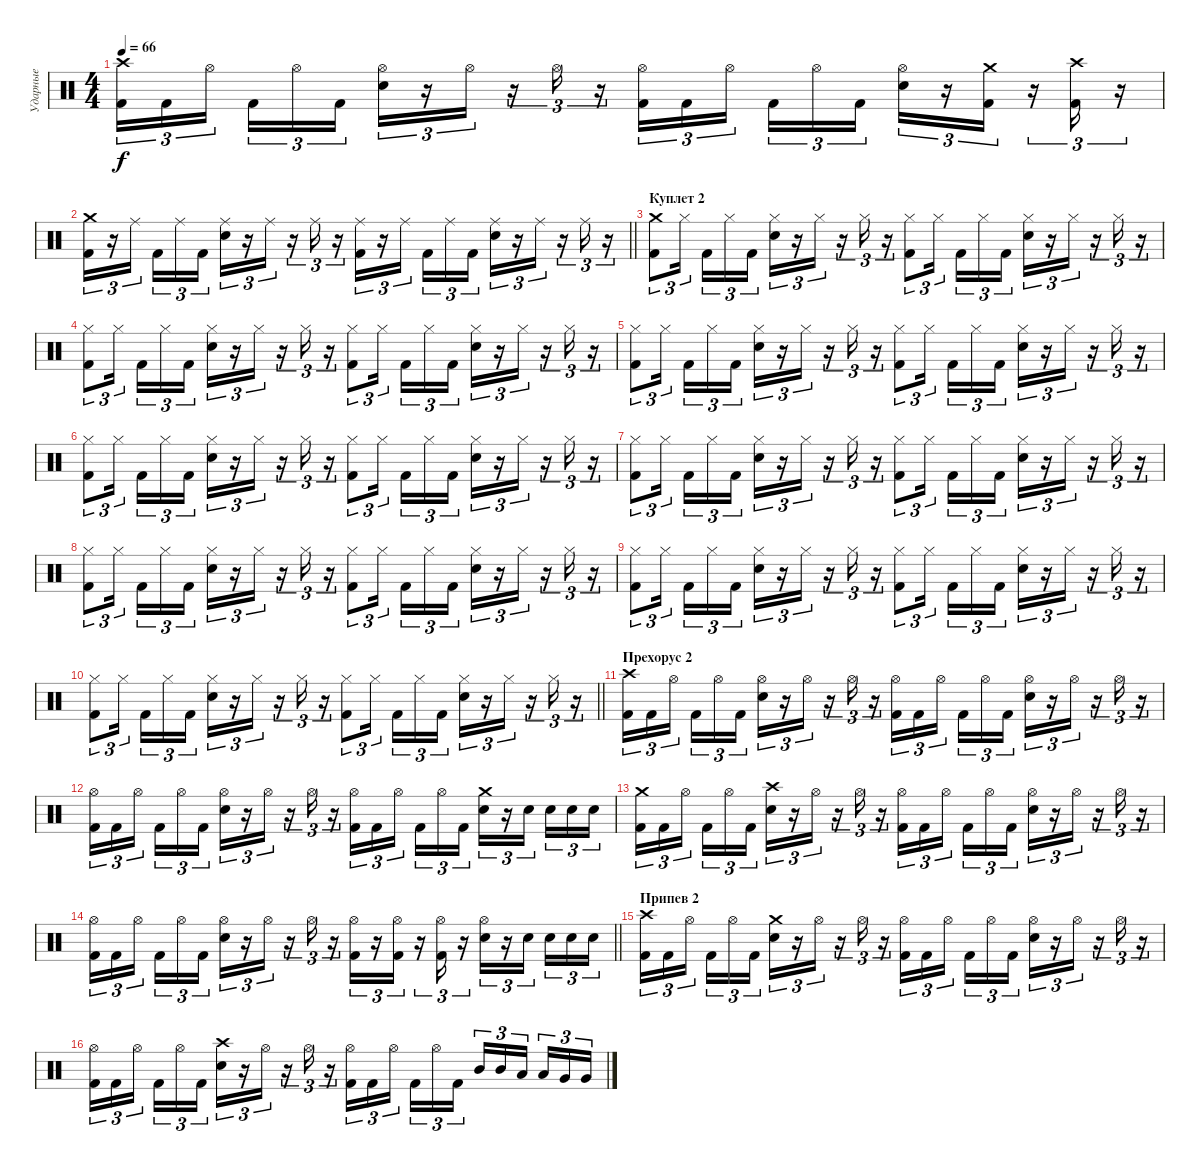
\track ("Ударные" "Ударные") {instrument percussion}
\staff {score}
\articulation defaults
\ts (4 4)
\tempo 66
\clef neutral
\ks c
("Crash high (hit)" "Kick (hit) 2").16{tu (3 2) dy f} "Kick (hit) 2".16{tu (3 2)} "Hi-Hat (open)".16{tu (3 2)} "Kick (hit) 2".16{tu (3 2)} "Hi-Hat (open)".16{tu (3 2)} "Kick (hit) 2".16{tu (3 2)} ("Hi-Hat (open)" "Snare (hit) 2").16{tu (3 2)} r.16{tu (3 2)} "Hi-Hat (open)".16{tu (3 2)} r.16{tu (3 2)} "Hi-Hat (open)".16{tu (3 2)} r.16{tu (3 2)} ("Hi-Hat (open)" "Kick (hit) 2").16{tu (3 2)} "Kick (hit) 2".16{tu (3 2)} "Hi-Hat (open)".16{tu (3 2)} "Kick (hit) 2".16{tu (3 2)} "Hi-Hat (open)".16{tu (3 2)} "Kick (hit) 2".16{tu (3 2)} ("Hi-Hat (open)" "Snare (hit) 2").16{tu (3 2)} r.16{tu (3 2)} ("Crash medium (hit)" "Kick (hit) 2").16{tu (3 2)} r.16{tu (3 2)} ("Crash high (hit)" "Kick (hit) 2").16{tu (3 2)} r.16{tu (3 2)} |
\barLineRight lightlight
("Crash medium (hit)" "Kick (hit) 2").16{tu (3 2)} r.16{tu (3 2)} "Ride (middle)".16{tu (3 2)} "Kick (hit) 2".16{tu (3 2)} "Ride (middle)".16{tu (3 2)} "Kick (hit) 2".16{tu (3 2)} ("Ride (middle)" "Snare (hit) 2").16{tu (3 2)} r.16{tu (3 2)} "Ride (middle)".16{tu (3 2)} r.16{tu (3 2)} "Ride (middle)".16{tu (3 2)} r.16{tu (3 2)} ("Ride (middle)" "Kick (hit) 2").16{tu (3 2)} r.16{tu (3 2)} "Ride (middle)".16{tu (3 2)} "Kick (hit) 2".16{tu (3 2)} "Ride (middle)".16{tu (3 2)} "Kick (hit) 2".16{tu (3 2)} ("Ride (middle)" "Snare (hit) 2").16{tu (3 2)} r.16{tu (3 2)} "Ride (middle)".16{tu (3 2)} r.16{tu (3 2)} "Ride (middle)".16{tu (3 2)} r.16{tu (3 2)} |
\section ("" "Куплет 2")
("Crash medium (hit)" "Kick (hit) 2").8{tu (3 2)} "Hi-Hat (closed)".16{tu (3 2)} "Kick (hit) 2".16{tu (3 2)} "Hi-Hat (closed)".16{tu (3 2)} "Kick (hit) 2".16{tu (3 2)} ("Hi-Hat (closed)" "Snare (hit) 2").16{tu (3 2)} r.16{tu (3 2)} "Hi-Hat (closed)".16{tu (3 2)} r.16{tu (3 2)} "Hi-Hat (closed)".16{tu (3 2)} r.16{tu (3 2)} ("Hi-Hat (closed)" "Kick (hit) 2").8{tu (3 2)} "Hi-Hat (closed)".16{tu (3 2)} "Kick (hit) 2".16{tu (3 2)} "Hi-Hat (closed)".16{tu (3 2)} "Kick (hit) 2".16{tu (3 2)} ("Hi-Hat (closed)" "Snare (hit) 2").16{tu (3 2)} r.16{tu (3 2)} "Hi-Hat (closed)".16{tu (3 2)} r.16{tu (3 2)} "Hi-Hat (closed)".16{tu (3 2)} r.16{tu (3 2)} |
("Hi-Hat (closed)" "Kick (hit) 2").8{tu (3 2)} "Hi-Hat (closed)".16{tu (3 2)} "Kick (hit) 2".16{tu (3 2)} "Hi-Hat (closed)".16{tu (3 2)} "Kick (hit) 2".16{tu (3 2)} ("Hi-Hat (closed)" "Snare (hit) 2").16{tu (3 2)} r.16{tu (3 2)} "Hi-Hat (closed)".16{tu (3 2)} r.16{tu (3 2)} "Hi-Hat (closed)".16{tu (3 2)} r.16{tu (3 2)} ("Hi-Hat (closed)" "Kick (hit) 2").8{tu (3 2)} "Hi-Hat (closed)".16{tu (3 2)} "Kick (hit) 2".16{tu (3 2)} "Hi-Hat (closed)".16{tu (3 2)} "Kick (hit) 2".16{tu (3 2)} ("Hi-Hat (closed)" "Snare (hit) 2").16{tu (3 2)} r.16{tu (3 2)} "Hi-Hat (closed)".16{tu (3 2)} r.16{tu (3 2)} "Hi-Hat (closed)".16{tu (3 2)} r.16{tu (3 2)} |
("Hi-Hat (closed)" "Kick (hit) 2").8{tu (3 2)} "Hi-Hat (closed)".16{tu (3 2)} "Kick (hit) 2".16{tu (3 2)} "Hi-Hat (closed)".16{tu (3 2)} "Kick (hit) 2".16{tu (3 2)} ("Hi-Hat (closed)" "Snare (hit) 2").16{tu (3 2)} r.16{tu (3 2)} "Hi-Hat (closed)".16{tu (3 2)} r.16{tu (3 2)} "Hi-Hat (closed)".16{tu (3 2)} r.16{tu (3 2)} ("Hi-Hat (closed)" "Kick (hit) 2").8{tu (3 2)} "Hi-Hat (closed)".16{tu (3 2)} "Kick (hit) 2".16{tu (3 2)} "Hi-Hat (closed)".16{tu (3 2)} "Kick (hit) 2".16{tu (3 2)} ("Hi-Hat (closed)" "Snare (hit) 2").16{tu (3 2)} r.16{tu (3 2)} "Hi-Hat (closed)".16{tu (3 2)} r.16{tu (3 2)} "Hi-Hat (closed)".16{tu (3 2)} r.16{tu (3 2)} |
("Hi-Hat (closed)" "Kick (hit) 2").8{tu (3 2)} "Hi-Hat (closed)".16{tu (3 2)} "Kick (hit) 2".16{tu (3 2)} "Hi-Hat (closed)".16{tu (3 2)} "Kick (hit) 2".16{tu (3 2)} ("Hi-Hat (closed)" "Snare (hit) 2").16{tu (3 2)} r.16{tu (3 2)} "Hi-Hat (closed)".16{tu (3 2)} r.16{tu (3 2)} "Hi-Hat (closed)".16{tu (3 2)} r.16{tu (3 2)} ("Hi-Hat (closed)" "Kick (hit) 2").8{tu (3 2)} "Hi-Hat (closed)".16{tu (3 2)} "Kick (hit) 2".16{tu (3 2)} "Hi-Hat (closed)".16{tu (3 2)} "Kick (hit) 2".16{tu (3 2)} ("Hi-Hat (closed)" "Snare (hit) 2").16{tu (3 2)} r.16{tu (3 2)} "Hi-Hat (closed)".16{tu (3 2)} r.16{tu (3 2)} "Hi-Hat (closed)".16{tu (3 2)} r.16{tu (3 2)} |
("Hi-Hat (closed)" "Kick (hit) 2").8{tu (3 2)} "Hi-Hat (closed)".16{tu (3 2)} "Kick (hit) 2".16{tu (3 2)} "Hi-Hat (closed)".16{tu (3 2)} "Kick (hit) 2".16{tu (3 2)} ("Hi-Hat (closed)" "Snare (hit) 2").16{tu (3 2)} r.16{tu (3 2)} "Hi-Hat (closed)".16{tu (3 2)} r.16{tu (3 2)} "Hi-Hat (closed)".16{tu (3 2)} r.16{tu (3 2)} ("Hi-Hat (closed)" "Kick (hit) 2").8{tu (3 2)} "Hi-Hat (closed)".16{tu (3 2)} "Kick (hit) 2".16{tu (3 2)} "Hi-Hat (closed)".16{tu (3 2)} "Kick (hit) 2".16{tu (3 2)} ("Hi-Hat (closed)" "Snare (hit) 2").16{tu (3 2)} r.16{tu (3 2)} "Hi-Hat (closed)".16{tu (3 2)} r.16{tu (3 2)} "Hi-Hat (closed)".16{tu (3 2)} r.16{tu (3 2)} |
("Hi-Hat (closed)" "Kick (hit) 2").8{tu (3 2)} "Hi-Hat (closed)".16{tu (3 2)} "Kick (hit) 2".16{tu (3 2)} "Hi-Hat (closed)".16{tu (3 2)} "Kick (hit) 2".16{tu (3 2)} ("Hi-Hat (closed)" "Snare (hit) 2").16{tu (3 2)} r.16{tu (3 2)} "Hi-Hat (closed)".16{tu (3 2)} r.16{tu (3 2)} "Hi-Hat (closed)".16{tu (3 2)} r.16{tu (3 2)} ("Hi-Hat (closed)" "Kick (hit) 2").8{tu (3 2)} "Hi-Hat (closed)".16{tu (3 2)} "Kick (hit) 2".16{tu (3 2)} "Hi-Hat (closed)".16{tu (3 2)} "Kick (hit) 2".16{tu (3 2)} ("Hi-Hat (closed)" "Snare (hit) 2").16{tu (3 2)} r.16{tu (3 2)} "Hi-Hat (closed)".16{tu (3 2)} r.16{tu (3 2)} "Hi-Hat (closed)".16{tu (3 2)} r.16{tu (3 2)} |
("Hi-Hat (closed)" "Kick (hit) 2").8{tu (3 2)} "Hi-Hat (closed)".16{tu (3 2)} "Kick (hit) 2".16{tu (3 2)} "Hi-Hat (closed)".16{tu (3 2)} "Kick (hit) 2".16{tu (3 2)} ("Hi-Hat (closed)" "Snare (hit) 2").16{tu (3 2)} r.16{tu (3 2)} "Hi-Hat (closed)".16{tu (3 2)} r.16{tu (3 2)} "Hi-Hat (closed)".16{tu (3 2)} r.16{tu (3 2)} ("Hi-Hat (closed)" "Kick (hit) 2").8{tu (3 2)} "Hi-Hat (closed)".16{tu (3 2)} "Kick (hit) 2".16{tu (3 2)} "Hi-Hat (closed)".16{tu (3 2)} "Kick (hit) 2".16{tu (3 2)} ("Hi-Hat (closed)" "Snare (hit) 2").16{tu (3 2)} r.16{tu (3 2)} "Hi-Hat (closed)".16{tu (3 2)} r.16{tu (3 2)} "Hi-Hat (closed)".16{tu (3 2)} r.16{tu (3 2)} |
\barLineRight lightlight
("Hi-Hat (closed)" "Kick (hit) 2").8{tu (3 2)} "Hi-Hat (closed)".16{tu (3 2)} "Kick (hit) 2".16{tu (3 2)} "Hi-Hat (closed)".16{tu (3 2)} "Kick (hit) 2".16{tu (3 2)} ("Hi-Hat (closed)" "Snare (hit) 2").16{tu (3 2)} r.16{tu (3 2)} "Hi-Hat (closed)".16{tu (3 2)} r.16{tu (3 2)} "Hi-Hat (closed)".16{tu (3 2)} r.16{tu (3 2)} ("Hi-Hat (closed)" "Kick (hit) 2").8{tu (3 2)} "Hi-Hat (closed)".16{tu (3 2)} "Kick (hit) 2".16{tu (3 2)} "Hi-Hat (closed)".16{tu (3 2)} "Kick (hit) 2".16{tu (3 2)} ("Hi-Hat (closed)" "Snare (hit) 2").16{tu (3 2)} r.16{tu (3 2)} "Hi-Hat (closed)".16{tu (3 2)} r.16{tu (3 2)} "Hi-Hat (closed)".16{tu (3 2)} r.16{tu (3 2)} |
\section ("" "Прехорус 2")
("Crash high (hit)" "Kick (hit) 2").16{tu (3 2)} "Kick (hit) 2".16{tu (3 2)} "Hi-Hat (open)".16{tu (3 2)} "Kick (hit) 2".16{tu (3 2)} "Hi-Hat (open)".16{tu (3 2)} "Kick (hit) 2".16{tu (3 2)} ("Hi-Hat (open)" "Snare (hit) 2").16{tu (3 2)} r.16{tu (3 2)} "Hi-Hat (open)".16{tu (3 2)} r.16{tu (3 2)} "Hi-Hat (open)".16{tu (3 2)} r.16{tu (3 2)} ("Hi-Hat (open)" "Kick (hit) 2").16{tu (3 2)} "Kick (hit) 2".16{tu (3 2)} "Hi-Hat (open)".16{tu (3 2)} "Kick (hit) 2".16{tu (3 2)} "Hi-Hat (open)".16{tu (3 2)} "Kick (hit) 2".16{tu (3 2)} ("Hi-Hat (open)" "Snare (hit) 2").16{tu (3 2)} r.16{tu (3 2)} "Hi-Hat (open)".16{tu (3 2)} r.16{tu (3 2)} "Hi-Hat (open)".16{tu (3 2)} r.16{tu (3 2)} |
("Hi-Hat (open)" "Kick (hit) 2").16{tu (3 2)} "Kick (hit) 2".16{tu (3 2)} "Hi-Hat (open)".16{tu (3 2)} "Kick (hit) 2".16{tu (3 2)} "Hi-Hat (open)".16{tu (3 2)} "Kick (hit) 2".16{tu (3 2)} ("Hi-Hat (open)" "Snare (hit) 2").16{tu (3 2)} r.16{tu (3 2)} "Hi-Hat (open)".16{tu (3 2)} r.16{tu (3 2)} "Hi-Hat (open)".16{tu (3 2)} r.16{tu (3 2)} ("Hi-Hat (open)" "Kick (hit) 2").16{tu (3 2)} "Kick (hit) 2".16{tu (3 2)} "Hi-Hat (open)".16{tu (3 2)} "Kick (hit) 2".16{tu (3 2)} "Hi-Hat (open)".16{tu (3 2)} "Kick (hit) 2".16{tu (3 2)} ("Crash medium (hit)" "Snare (hit) 2").16{tu (3 2)} r.16{tu (3 2)} "Snare (hit) 2".16{tu (3 2)} "Snare (hit) 2".16{tu (3 2)} "Snare (hit) 2".16{tu (3 2)} "Snare (hit) 2".16{tu (3 2)} |
("Crash medium (hit)" "Kick (hit) 2").16{tu (3 2)} "Kick (hit) 2".16{tu (3 2)} "Hi-Hat (open)".16{tu (3 2)} "Kick (hit) 2".16{tu (3 2)} "Hi-Hat (open)".16{tu (3 2)} "Kick (hit) 2".16{tu (3 2)} ("Crash high (hit)" "Snare (hit) 2").16{tu (3 2)} r.16{tu (3 2)} "Hi-Hat (open)".16{tu (3 2)} r.16{tu (3 2)} "Hi-Hat (open)".16{tu (3 2)} r.16{tu (3 2)} ("Hi-Hat (open)" "Kick (hit) 2").16{tu (3 2)} "Kick (hit) 2".16{tu (3 2)} "Hi-Hat (open)".16{tu (3 2)} "Kick (hit) 2".16{tu (3 2)} "Hi-Hat (open)".16{tu (3 2)} "Kick (hit) 2".16{tu (3 2)} ("Hi-Hat (open)" "Snare (hit) 2").16{tu (3 2)} r.16{tu (3 2)} "Hi-Hat (open)".16{tu (3 2)} r.16{tu (3 2)} "Hi-Hat (open)".16{tu (3 2)} r.16{tu (3 2)} |
\barLineRight lightlight
("Hi-Hat (open)" "Kick (hit) 2").16{tu (3 2)} "Kick (hit) 2".16{tu (3 2)} "Hi-Hat (open)".16{tu (3 2)} "Kick (hit) 2".16{tu (3 2)} "Hi-Hat (open)".16{tu (3 2)} "Kick (hit) 2".16{tu (3 2)} ("Hi-Hat (open)" "Snare (hit) 2").16{tu (3 2)} r.16{tu (3 2)} "Hi-Hat (open)".16{tu (3 2)} r.16{tu (3 2)} "Hi-Hat (open)".16{tu (3 2)} r.16{tu (3 2)} ("Hi-Hat (open)" "Kick (hit) 2").16{tu (3 2)} r.16{tu (3 2)} ("Hi-Hat (open)" "Kick (hit) 2").16{tu (3 2)} r.16{tu (3 2)} ("Hi-Hat (open)" "Kick (hit) 2").16{tu (3 2)} r.16{tu (3 2)} ("Hi-Hat (open)" "Snare (hit) 2").16{tu (3 2)} r.16{tu (3 2)} "Snare (hit) 2".16{tu (3 2)} "Snare (hit) 2".16{tu (3 2)} "Snare (hit) 2".16{tu (3 2)} "Snare (hit) 2".16{tu (3 2)} |
\section ("" "Припев 2")
("Crash high (hit)" "Kick (hit) 2").16{tu (3 2)} "Kick (hit) 2".16{tu (3 2)} "Hi-Hat (open)".16{tu (3 2)} "Kick (hit) 2".16{tu (3 2)} "Hi-Hat (open)".16{tu (3 2)} "Kick (hit) 2".16{tu (3 2)} ("Crash medium (hit)" "Snare (hit) 2").16{tu (3 2)} r.16{tu (3 2)} "Hi-Hat (open)".16{tu (3 2)} r.16{tu (3 2)} "Hi-Hat (open)".16{tu (3 2)} r.16{tu (3 2)} ("Hi-Hat (open)" "Kick (hit) 2").16{tu (3 2)} "Kick (hit) 2".16{tu (3 2)} "Hi-Hat (open)".16{tu (3 2)} "Kick (hit) 2".16{tu (3 2)} "Hi-Hat (open)".16{tu (3 2)} "Kick (hit) 2".16{tu (3 2)} ("Hi-Hat (open)" "Snare (hit) 2").16{tu (3 2)} r.16{tu (3 2)} "Hi-Hat (open)".16{tu (3 2)} r.16{tu (3 2)} "Hi-Hat (open)".16{tu (3 2)} r.16{tu (3 2)} |
("Hi-Hat (open)" "Kick (hit) 2").16{tu (3 2)} "Kick (hit) 2".16{tu (3 2)} "Hi-Hat (open)".16{tu (3 2)} "Kick (hit) 2".16{tu (3 2)} "Hi-Hat (open)".16{tu (3 2)} "Kick (hit) 2".16{tu (3 2)} ("Crash high (hit)" "Snare (hit) 2").16{tu (3 2)} r.16{tu (3 2)} "Hi-Hat (open)".16{tu (3 2)} r.16{tu (3 2)} "Hi-Hat (open)".16{tu (3 2)} r.16{tu (3 2)} ("Hi-Hat (open)" "Kick (hit) 2").16{tu (3 2)} "Kick (hit) 2".16{tu (3 2)} "Hi-Hat (open)".16{tu (3 2)} "Kick (hit) 2".16{tu (3 2)} "Hi-Hat (open)".16{tu (3 2)} "Kick (hit) 2".16{tu (3 2)} "Mid Tom (hit)".16{tu (3 2)} "Mid Tom (hit)".16{tu (3 2)} "Low Tom (hit)".16{tu (3 2)} "Low Tom (hit)".16{tu (3 2)} "Very Low Tom (hit)".16{tu (3 2)} "Very Low Tom (hit)".16{tu (3 2)}
